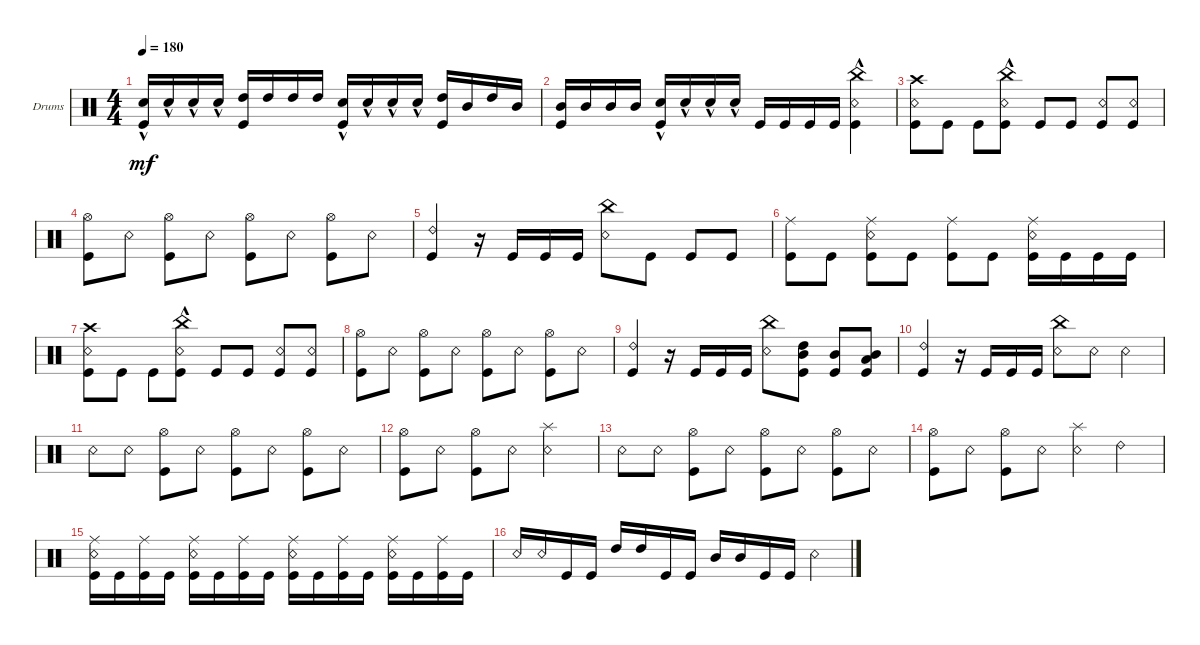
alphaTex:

\defaultSystemsLayout 4
\bracketExtendMode groupsimilarinstruments
\firstSystemTrackNameOrientation horizontal
\otherSystemsTrackNameOrientation horizontal
\track ("Drumkit" "Drums") {instrument percussion}
\staff {score}
\articulation defaults
\ts (4 4)
\tempo 180
\clef neutral
\scale
0.333333
\ks c
("Snare (hit) 2"{hac} "Kick (hit)").16{dy mf} "Snare (hit) 2"{hac}.16 "Snare (hit) 2"{hac}.16 "Snare (hit) 2"{hac}.16 ("Kick (hit)" "High Tom (hit)").16 "High Tom (hit)".16 "High Tom (hit)".16 "High Tom (hit)".16 ("Kick (hit)" "Snare (hit) 2"{hac}).16 "Snare (hit) 2"{hac}.16 "Snare (hit) 2"{hac}.16 "Snare (hit) 2"{hac}.16 ("Kick (hit)" "High Tom (hit)").16 "Mid Tom (hit)".16 "High Tom (hit)".16 "Mid Tom (hit)".16 |
\scale
0.333333 ("Kick (hit)" "Mid Tom (hit)").16 "Mid Tom (hit)".16 "Mid Tom (hit)".16 "Mid Tom (hit)".16 ("Kick (hit)" "Snare (hit) 2"{hac}).16 "Snare (hit) 2"{hac}.16 "Snare (hit) 2"{hac}.16 "Snare (hit) 2"{hac}.16 "Kick (hit)".16 "Kick (hit)".16 "Kick (hit)".16 "Kick (hit)".16 ("Snare (rim shot)" "Kick (hit)" "China (hit)"{hac}).4 |
\scale
0.333333 ("Kick (hit)" "Snare (rim shot)" "Crash high (hit)").8 "Kick (hit)".8 "Kick (hit)".8 ("Kick (hit)" "Snare (rim shot)" "China (hit)"{hac}).8 "Kick (hit)".8 "Kick (hit)".8 ("Kick (hit)" "Snare (rim shot)").8 ("Kick (hit)" "Snare (rim shot)").8 |
\scale
0.333333 ("Hi-Hat (open)" "Kick (hit)").8 "Snare (rim shot)".8 ("Hi-Hat (open)" "Kick (hit)").8 "Snare (rim shot)".8 ("Hi-Hat (open)" "Kick (hit)").8 "Snare (rim shot)".8 ("Hi-Hat (open)" "Kick (hit)").8 "Snare (rim shot)".8 |
\scale
0.333333 ("Kick (hit)" "Ride (bell) 2").4 r.16 "Kick (hit)".16 "Kick (hit)".16 "Kick (hit)".16 ("Snare (rim shot)" "China (hit)").8 "Kick (hit)".8 "Kick (hit)".8 "Kick (hit)".8 |
\scale
0.333333 ("Kick (hit)" "Ride (middle)").8 "Kick (hit)".8 ("Kick (hit)" "Snare (rim shot)" "Ride (middle)").8 "Kick (hit)".8 ("Kick (hit)" "Ride (middle)").8 "Kick (hit)".8 ("Kick (hit)" "Snare (rim shot)" "Ride (middle)").16 "Kick (hit)".16 "Kick (hit)".16 "Kick (hit)".16 |
\scale
0.333333 ("Kick (hit)" "Snare (rim shot)" "Crash high (hit)").8 "Kick (hit)".8 "Kick (hit)".8 ("Kick (hit)" "Snare (rim shot)" "China (hit)"{hac}).8 "Kick (hit)".8 "Kick (hit)".8 ("Kick (hit)" "Snare (rim shot)").8 ("Kick (hit)" "Snare (rim shot)").8 |
\scale
0.333333 ("Hi-Hat (open)" "Kick (hit)").8 "Snare (rim shot)".8 ("Hi-Hat (open)" "Kick (hit)").8 "Snare (rim shot)".8 ("Hi-Hat (open)" "Kick (hit)").8 "Snare (rim shot)".8 ("Hi-Hat (open)" "Kick (hit)").8 "Snare (rim shot)".8 |
\scale
0.333333 ("Kick (hit)" "Ride (bell) 2").4 r.16 "Kick (hit)".16 "Kick (hit)".16 "Kick (hit)".16 ("Snare (rim shot)" "China (hit)").8 ("Kick (hit)" "High Tom (hit)" "Mid Tom (hit)").8 ("Kick (hit)" "Mid Tom (hit)").8 ("Kick (hit)" "Low Tom (hit)" "Mid Tom (hit)").8 |
\scale
0.333333 ("Kick (hit)" "Ride (bell) 2").4 r.16 "Kick (hit)".16 "Kick (hit)".16 "Kick (hit)".16 ("Snare (rim shot)" "China (hit)").8 "Snare (rim shot)".8 "Snare (rim shot)".4 |
\scale
0.333333 "Snare (rim shot)".8 "Snare (rim shot)".8 ("Kick (hit)" "Hi-Hat (open)").8 "Snare (rim shot)".8 ("Kick (hit)" "Hi-Hat (open)").8 "Snare (rim shot)".8 ("Kick (hit)" "Hi-Hat (open)").8 "Snare (rim shot)".8 |
\scale
0.333333 ("Kick (hit)" "Hi-Hat (open)").8 "Snare (rim shot)".8 ("Kick (hit)" "Hi-Hat (open)").8 "Snare (rim shot)".8 ("Snare (rim shot)" "Splash (hit)").2 |
\scale
0.333333 "Snare (rim shot)".8 "Snare (rim shot)".8 ("Kick (hit)" "Hi-Hat (open)").8 "Snare (rim shot)".8 ("Kick (hit)" "Hi-Hat (open)").8 "Snare (rim shot)".8 ("Kick (hit)" "Hi-Hat (open)").8 "Snare (rim shot)".8 |
\scale
0.333333 ("Kick (hit)" "Hi-Hat (open)").8 "Snare (rim shot)".8 ("Kick (hit)" "Hi-Hat (open)").8 "Snare (rim shot)".8 ("Snare (rim shot)" "Splash (hit)").4 "Ride (bell) 2".4 |
\scale
0.333333 ("Kick (hit)" "Ride (middle)" "Snare (rim shot)").16 "Kick (hit)".16 ("Kick (hit)" "Ride (middle)").16 "Kick (hit)".16 ("Kick (hit)" "Ride (middle)" "Snare (rim shot)").16 "Kick (hit)".16 ("Kick (hit)" "Ride (middle)").16 "Kick (hit)".16 ("Kick (hit)" "Ride (middle)" "Snare (rim shot)").16 "Kick (hit)".16 ("Kick (hit)" "Ride (middle)").16 "Kick (hit)".16 ("Kick (hit)" "Ride (middle)" "Snare (rim shot)").16 "Kick (hit)".16 ("Kick (hit)" "Ride (middle)").16 "Kick (hit)".16 |
\scale
0.333333 "Snare (rim shot)".16 "Snare (rim shot)".16 "Kick (hit)".16 "Kick (hit)".16 "High Tom (hit)".16 "High Tom (hit)".16 "Kick (hit)".16 "Kick (hit)".16 "Mid Tom (hit)".16 "Mid Tom (hit)".16 "Kick (hit)".16 "Kick (hit)".16 "Snare (rim shot)".4
